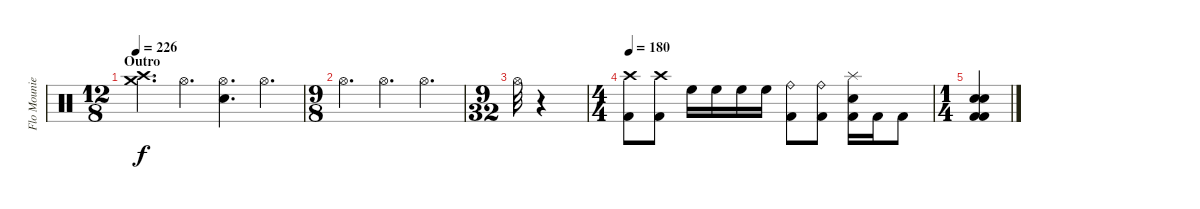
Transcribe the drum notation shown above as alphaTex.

\track ("Flo Mounier" "Flo Mounie") {instrument percussion}
\staff {score}
\articulation defaults
\ts (12 8)
\section ("" "Outro")
\tempo 226
\clef neutral
\ks c
("Crash medium (hit)" "Crash high (hit)").4{d dy f} "Hi-Hat (open)".4{d} ("Hi-Hat (open)" "Snare (hit) 2").4{d} "Hi-Hat (open)".4{d} |
\ts (9 8)
"Hi-Hat (open)".4{d} "Hi-Hat (open)".4{d} "Hi-Hat (open)".4{d} |
\ts (9 32)
"Hi-Hat (open)".32 r.4 |
\ts (4 4)
\tempo 180
("Crash high (hit)" "Kick (hit) 2").8 ("Crash high (hit)" "Kick (hit) 2").8 "High Floor Tom (hit)".16 "High Floor Tom (hit)".16 "High Floor Tom (hit)".16 "High Floor Tom (hit)".16 ("Ride (bell)" "Kick (hit) 2").8 ("Ride (bell)" "Kick (hit) 2").8 ("Splash (hit)" "Snare (hit) 2" "Kick (hit) 2").16 "Kick (hit) 2".16 "Kick (hit) 2".8 |
\ts (1 4)
("Snare (hit) 2" "Snare (hit) 2" "Kick (hit) 2" "Kick (hit) 2").4
